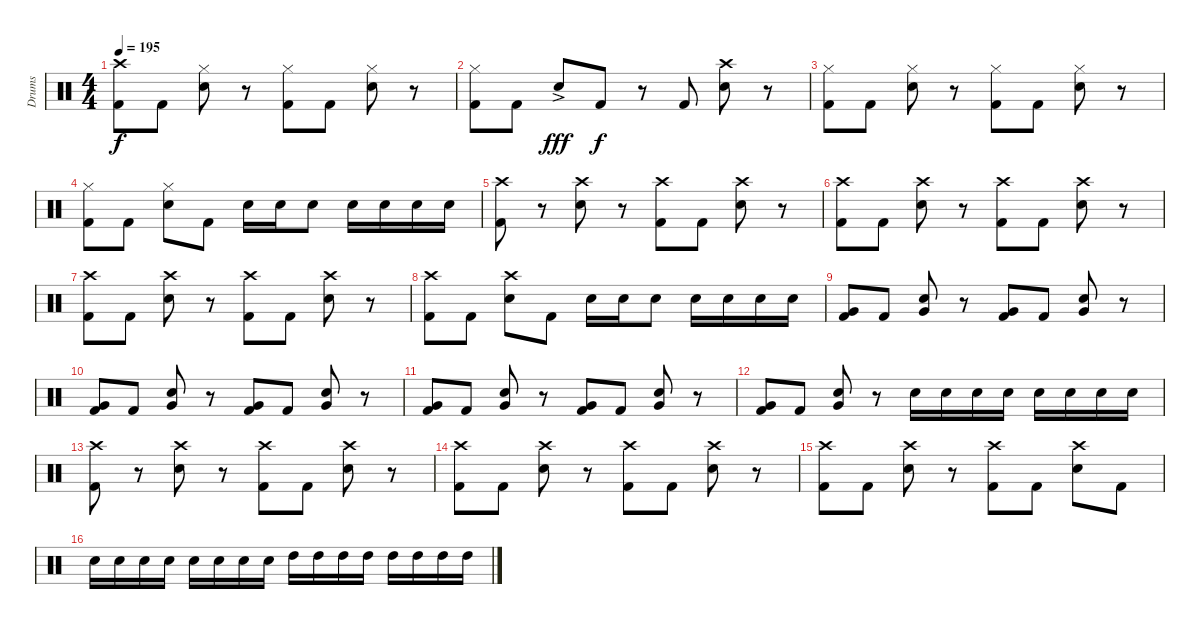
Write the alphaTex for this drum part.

\track ("Drums" "Drums") {instrument percussion}
\staff {score}
\articulation defaults
\ts (4 4)
\tempo 195
\clef neutral
\ks c
("Crash high (hit)" "Kick (hit) 2").8{dy f} "Kick (hit) 2".8 ("Hi-Hat (closed)" "Electric Snare (hit)").8 r.8 ("Hi-Hat (closed)" "Kick (hit) 2").8 "Kick (hit) 2".8 ("Hi-Hat (closed)" "Electric Snare (hit)").8 r.8 |
("Hi-Hat (closed)" "Kick (hit) 2").8 "Kick (hit) 2".8 "Electric Snare (hit)"{ac}.8{dy fff} "Kick (hit) 2".8{dy f} r.8 "Kick (hit) 2".8 ("Crash high (hit)" "Electric Snare (hit)").8 r.8 |
("Hi-Hat (closed)" "Kick (hit) 2").8 "Kick (hit) 2".8 ("Hi-Hat (closed)" "Electric Snare (hit)").8 r.8 ("Hi-Hat (closed)" "Kick (hit) 2").8 "Kick (hit) 2".8 ("Hi-Hat (closed)" "Electric Snare (hit)").8 r.8 |
("Hi-Hat (closed)" "Kick (hit) 2").8 "Kick (hit) 2".8 ("Hi-Hat (closed)" "Electric Snare (hit)").8 "Kick (hit) 2".8 "Electric Snare (hit)".16 "Electric Snare (hit)".16 "Electric Snare (hit)".8 "Electric Snare (hit)".16 "Electric Snare (hit)".16 "Electric Snare (hit)".16 "Electric Snare (hit)".16 |
("Crash high (hit)" "Kick (hit) 2").8 r.8 ("Crash high (hit)" "Electric Snare (hit)").8 r.8 ("Crash high (hit)" "Kick (hit) 2").8 "Kick (hit) 2".8 ("Crash high (hit)" "Electric Snare (hit)").8 r.8 |
("Crash high (hit)" "Kick (hit) 2").8 "Kick (hit) 2".8 ("Crash high (hit)" "Electric Snare (hit)").8 r.8 ("Crash high (hit)" "Kick (hit) 2").8 "Kick (hit) 2".8 ("Crash high (hit)" "Electric Snare (hit)").8 r.8 |
("Crash high (hit)" "Kick (hit) 2").8 "Kick (hit) 2".8 ("Crash high (hit)" "Electric Snare (hit)").8 r.8 ("Crash high (hit)" "Kick (hit) 2").8 "Kick (hit) 2".8 ("Crash high (hit)" "Electric Snare (hit)").8 r.8 |
("Crash high (hit)" "Kick (hit) 2").8 "Kick (hit) 2".8 ("Crash high (hit)" "Electric Snare (hit)").8 "Kick (hit) 2".8 "Electric Snare (hit)".16 "Electric Snare (hit)".16 "Electric Snare (hit)".8 "Electric Snare (hit)".16 "Electric Snare (hit)".16 "Electric Snare (hit)".16 "Electric Snare (hit)".16 |
("Very Low Tom (hit)" "Kick (hit) 2").8 "Kick (hit) 2".8 ("Electric Snare (hit)" "Very Low Tom (hit)").8 r.8 ("Very Low Tom (hit)" "Kick (hit) 2").8 "Kick (hit) 2".8 ("Electric Snare (hit)" "Very Low Tom (hit)").8 r.8 |
("Very Low Tom (hit)" "Kick (hit) 2").8 "Kick (hit) 2".8 ("Electric Snare (hit)" "Very Low Tom (hit)").8 r.8 ("Very Low Tom (hit)" "Kick (hit) 2").8 "Kick (hit) 2".8 ("Electric Snare (hit)" "Very Low Tom (hit)").8 r.8 |
("Very Low Tom (hit)" "Kick (hit) 2").8 "Kick (hit) 2".8 ("Electric Snare (hit)" "Very Low Tom (hit)").8 r.8 ("Very Low Tom (hit)" "Kick (hit) 2").8 "Kick (hit) 2".8 ("Electric Snare (hit)" "Very Low Tom (hit)").8 r.8 |
("Very Low Tom (hit)" "Kick (hit) 2").8 "Kick (hit) 2".8 ("Electric Snare (hit)" "Very Low Tom (hit)").8 r.8 "Electric Snare (hit)".16 "Electric Snare (hit)".16 "Electric Snare (hit)".16 "Electric Snare (hit)".16 "Electric Snare (hit)".16 "Electric Snare (hit)".16 "Electric Snare (hit)".16 "Electric Snare (hit)".16 |
("Crash high (hit)" "Kick (hit) 2").8 r.8 ("Crash high (hit)" "Electric Snare (hit)").8 r.8 ("Crash high (hit)" "Kick (hit) 2").8 "Kick (hit) 2".8 ("Crash high (hit)" "Electric Snare (hit)").8 r.8 |
("Crash high (hit)" "Kick (hit) 2").8 "Kick (hit) 2".8 ("Crash high (hit)" "Electric Snare (hit)").8 r.8 ("Crash high (hit)" "Kick (hit) 2").8 "Kick (hit) 2".8 ("Crash high (hit)" "Electric Snare (hit)").8 r.8 |
("Crash high (hit)" "Kick (hit) 2").8 "Kick (hit) 2".8 ("Crash high (hit)" "Electric Snare (hit)").8 r.8 ("Crash high (hit)" "Kick (hit) 2").8 "Kick (hit) 2".8 ("Crash high (hit)" "Electric Snare (hit)").8 "Kick (hit) 2".8 |
"Electric Snare (hit)".16 "Electric Snare (hit)".16 "Electric Snare (hit)".16 "Electric Snare (hit)".16 "Electric Snare (hit)".16 "Electric Snare (hit)".16 "Electric Snare (hit)".16 "Electric Snare (hit)".16 "High Tom (hit)".16 "High Tom (hit)".16 "High Tom (hit)".16 "High Tom (hit)".16 "High Tom (hit)".16 "High Tom (hit)".16 "High Tom (hit)".16 "High Tom (hit)".16
